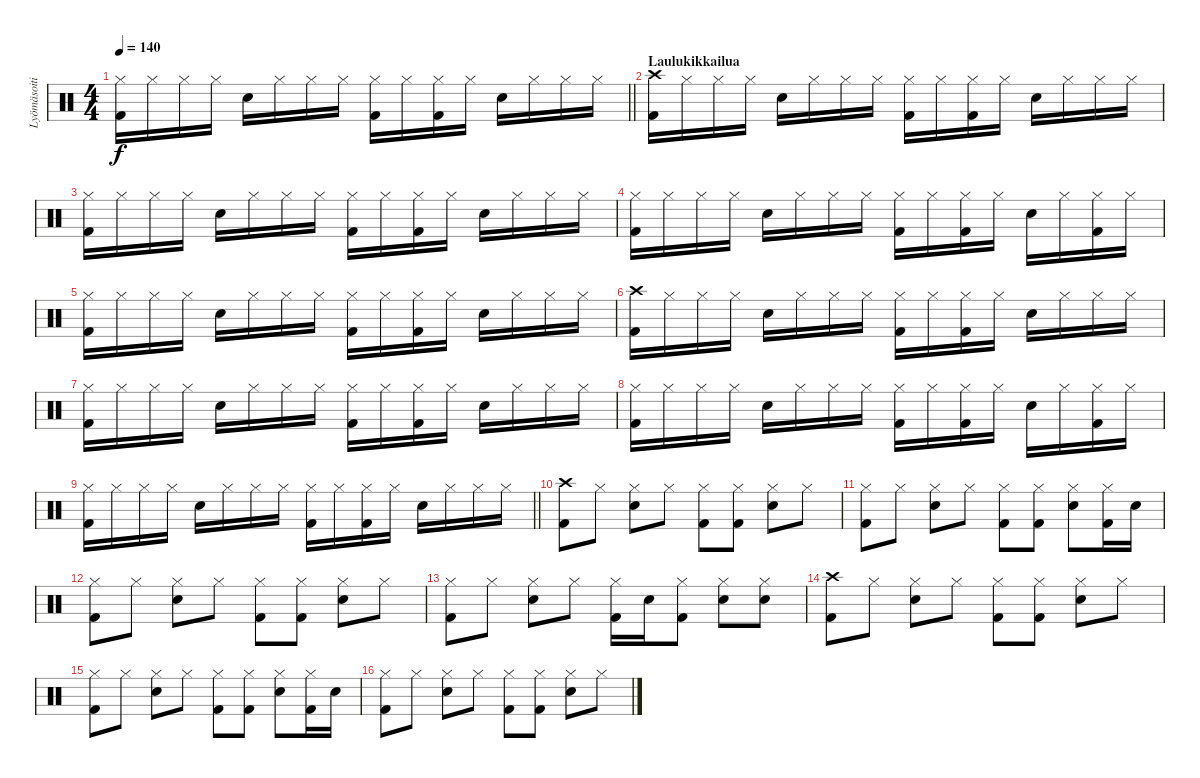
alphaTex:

\track ("Lyömäsoitin" "Lyömäsoiti") {instrument percussion}
\staff {score}
\articulation defaults
\ts (4 4)
\tempo 140
\clef neutral
\barLineRight lightlight
\ks c
("Hi-Hat (closed)" "Kick (hit) 2").16{dy f} "Hi-Hat (closed)".16 "Hi-Hat (closed)".16 "Hi-Hat (closed)".16 "Snare (hit) 2".16 "Hi-Hat (closed)".16 "Hi-Hat (closed)".16 "Hi-Hat (closed)".16 ("Hi-Hat (closed)" "Kick (hit) 2").16 "Hi-Hat (closed)".16 ("Hi-Hat (closed)" "Kick (hit) 2").16 "Hi-Hat (closed)".16 "Snare (hit) 2".16 "Hi-Hat (closed)".16 "Hi-Hat (closed)".16 "Hi-Hat (closed)".16 |
\section ("" "Laulukikkailua")
("Crash high (hit)" "Kick (hit) 2").16 "Hi-Hat (closed)".16 "Hi-Hat (closed)".16 "Hi-Hat (closed)".16 "Snare (hit) 2".16 "Hi-Hat (closed)".16 "Hi-Hat (closed)".16 "Hi-Hat (closed)".16 ("Hi-Hat (closed)" "Kick (hit) 2").16 "Hi-Hat (closed)".16 ("Hi-Hat (closed)" "Kick (hit) 2").16 "Hi-Hat (closed)".16 "Snare (hit) 2".16 "Hi-Hat (closed)".16 "Hi-Hat (closed)".16 "Hi-Hat (closed)".16 |
("Hi-Hat (closed)" "Kick (hit) 2").16 "Hi-Hat (closed)".16 "Hi-Hat (closed)".16 "Hi-Hat (closed)".16 "Snare (hit) 2".16 "Hi-Hat (closed)".16 "Hi-Hat (closed)".16 "Hi-Hat (closed)".16 ("Hi-Hat (closed)" "Kick (hit) 2").16 "Hi-Hat (closed)".16 ("Hi-Hat (closed)" "Kick (hit) 2").16 "Hi-Hat (closed)".16 "Snare (hit) 2".16 "Hi-Hat (closed)".16 "Hi-Hat (closed)".16 "Hi-Hat (closed)".16 |
("Hi-Hat (closed)" "Kick (hit) 2").16 "Hi-Hat (closed)".16 "Hi-Hat (closed)".16 "Hi-Hat (closed)".16 "Snare (hit) 2".16 "Hi-Hat (closed)".16 "Hi-Hat (closed)".16 "Hi-Hat (closed)".16 ("Hi-Hat (closed)" "Kick (hit) 2").16 "Hi-Hat (closed)".16 ("Hi-Hat (closed)" "Kick (hit) 2").16 "Hi-Hat (closed)".16 "Snare (hit) 2".16 "Hi-Hat (closed)".16 ("Hi-Hat (closed)" "Kick (hit) 2").16 "Hi-Hat (closed)".16 |
("Hi-Hat (closed)" "Kick (hit) 2").16 "Hi-Hat (closed)".16 "Hi-Hat (closed)".16 "Hi-Hat (closed)".16 "Snare (hit) 2".16 "Hi-Hat (closed)".16 "Hi-Hat (closed)".16 "Hi-Hat (closed)".16 ("Hi-Hat (closed)" "Kick (hit) 2").16 "Hi-Hat (closed)".16 ("Hi-Hat (closed)" "Kick (hit) 2").16 "Hi-Hat (closed)".16 "Snare (hit) 2".16 "Hi-Hat (closed)".16 "Hi-Hat (closed)".16 "Hi-Hat (closed)".16 |
("Crash high (hit)" "Kick (hit) 2").16 "Hi-Hat (closed)".16 "Hi-Hat (closed)".16 "Hi-Hat (closed)".16 "Snare (hit) 2".16 "Hi-Hat (closed)".16 "Hi-Hat (closed)".16 "Hi-Hat (closed)".16 ("Hi-Hat (closed)" "Kick (hit) 2").16 "Hi-Hat (closed)".16 ("Hi-Hat (closed)" "Kick (hit) 2").16 "Hi-Hat (closed)".16 "Snare (hit) 2".16 "Hi-Hat (closed)".16 "Hi-Hat (closed)".16 "Hi-Hat (closed)".16 |
("Hi-Hat (closed)" "Kick (hit) 2").16 "Hi-Hat (closed)".16 "Hi-Hat (closed)".16 "Hi-Hat (closed)".16 "Snare (hit) 2".16 "Hi-Hat (closed)".16 "Hi-Hat (closed)".16 "Hi-Hat (closed)".16 ("Hi-Hat (closed)" "Kick (hit) 2").16 "Hi-Hat (closed)".16 ("Hi-Hat (closed)" "Kick (hit) 2").16 "Hi-Hat (closed)".16 "Snare (hit) 2".16 "Hi-Hat (closed)".16 "Hi-Hat (closed)".16 "Hi-Hat (closed)".16 |
("Hi-Hat (closed)" "Kick (hit) 2").16 "Hi-Hat (closed)".16 "Hi-Hat (closed)".16 "Hi-Hat (closed)".16 "Snare (hit) 2".16 "Hi-Hat (closed)".16 "Hi-Hat (closed)".16 "Hi-Hat (closed)".16 ("Hi-Hat (closed)" "Kick (hit) 2").16 "Hi-Hat (closed)".16 ("Hi-Hat (closed)" "Kick (hit) 2").16 "Hi-Hat (closed)".16 "Snare (hit) 2".16 "Hi-Hat (closed)".16 ("Hi-Hat (closed)" "Kick (hit) 2").16 "Hi-Hat (closed)".16 |
\barLineRight lightlight
("Hi-Hat (closed)" "Kick (hit) 2").16 "Hi-Hat (closed)".16 "Hi-Hat (closed)".16 "Hi-Hat (closed)".16 "Snare (hit) 2".16 "Hi-Hat (closed)".16 "Hi-Hat (closed)".16 "Hi-Hat (closed)".16 ("Hi-Hat (closed)" "Kick (hit) 2").16 "Hi-Hat (closed)".16 ("Hi-Hat (closed)" "Kick (hit) 2").16 "Hi-Hat (closed)".16 "Snare (hit) 2".16 "Hi-Hat (closed)".16 "Hi-Hat (closed)".16 "Hi-Hat (closed)".16 |
("Crash high (hit)" "Kick (hit) 2").8 "Hi-Hat (closed)".8 ("Hi-Hat (closed)" "Snare (hit) 2").8 "Hi-Hat (closed)".8 ("Hi-Hat (closed)" "Kick (hit) 2").8 ("Hi-Hat (closed)" "Kick (hit) 2").8 ("Hi-Hat (closed)" "Snare (hit) 2").8 "Hi-Hat (closed)".8 |
("Hi-Hat (closed)" "Kick (hit) 2").8 "Hi-Hat (closed)".8 ("Hi-Hat (closed)" "Snare (hit) 2").8 "Hi-Hat (closed)".8 ("Hi-Hat (closed)" "Kick (hit) 2").8 ("Hi-Hat (closed)" "Kick (hit) 2").8 ("Hi-Hat (closed)" "Snare (hit) 2").8 ("Hi-Hat (closed)" "Kick (hit) 2").16 "Snare (hit) 2".16 |
("Hi-Hat (closed)" "Kick (hit) 2").8 "Hi-Hat (closed)".8 ("Hi-Hat (closed)" "Snare (hit) 2").8 "Hi-Hat (closed)".8 ("Hi-Hat (closed)" "Kick (hit) 2").8 ("Hi-Hat (closed)" "Kick (hit) 2").8 ("Hi-Hat (closed)" "Snare (hit) 2").8 "Hi-Hat (closed)".8 |
("Hi-Hat (closed)" "Kick (hit) 2").8 "Hi-Hat (closed)".8 ("Hi-Hat (closed)" "Snare (hit) 2").8 "Hi-Hat (closed)".8 ("Hi-Hat (closed)" "Kick (hit) 2").16 "Snare (hit) 2".16 ("Hi-Hat (closed)" "Kick (hit) 2").8 ("Hi-Hat (closed)" "Snare (hit) 2").8 ("Hi-Hat (closed)" "Snare (hit) 2").8 |
("Crash high (hit)" "Kick (hit) 2").8 "Hi-Hat (closed)".8 ("Hi-Hat (closed)" "Snare (hit) 2").8 "Hi-Hat (closed)".8 ("Hi-Hat (closed)" "Kick (hit) 2").8 ("Hi-Hat (closed)" "Kick (hit) 2").8 ("Hi-Hat (closed)" "Snare (hit) 2").8 "Hi-Hat (closed)".8 |
("Hi-Hat (closed)" "Kick (hit) 2").8 "Hi-Hat (closed)".8 ("Hi-Hat (closed)" "Snare (hit) 2").8 "Hi-Hat (closed)".8 ("Hi-Hat (closed)" "Kick (hit) 2").8 ("Hi-Hat (closed)" "Kick (hit) 2").8 ("Hi-Hat (closed)" "Snare (hit) 2").8 ("Hi-Hat (closed)" "Kick (hit) 2").16 "Snare (hit) 2".16 |
("Hi-Hat (closed)" "Kick (hit) 2").8 "Hi-Hat (closed)".8 ("Hi-Hat (closed)" "Snare (hit) 2").8 "Hi-Hat (closed)".8 ("Hi-Hat (closed)" "Kick (hit) 2").8 ("Hi-Hat (closed)" "Kick (hit) 2").8 ("Hi-Hat (closed)" "Snare (hit) 2").8 "Hi-Hat (closed)".8
